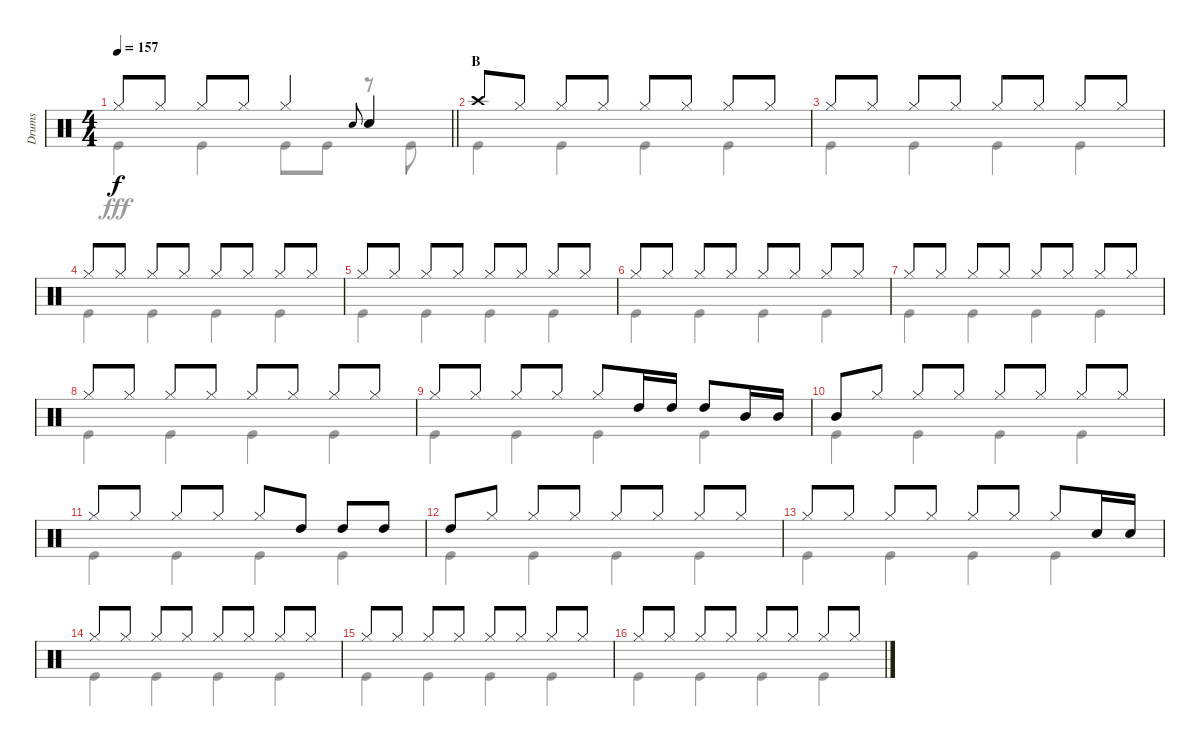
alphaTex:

\track ("Drums" "Drums") {instrument percussion}
\staff {score}
\articulation defaults
\voice
\ts (4 4)
\tempo 157
\clef neutral
\barLineRight lightlight
\ks c "Hi-Hat (closed)".8{dy f} "Hi-Hat (closed)".8 "Hi-Hat (closed)".8 "Hi-Hat (closed)".8 "Hi-Hat (closed)".4 "Snare (hit) 2".8{gr onbeat} "Snare (hit) 2".4
|
\section ("" "B")
"Crash high (hit)".8 "Hi-Hat (closed)".8 "Hi-Hat (closed)".8 "Hi-Hat (closed)".8 "Hi-Hat (closed)".8 "Hi-Hat (closed)".8 "Hi-Hat (closed)".8 "Hi-Hat (closed)".8 |
"Hi-Hat (closed)".8 "Hi-Hat (closed)".8 "Hi-Hat (closed)".8 "Hi-Hat (closed)".8 "Hi-Hat (closed)".8 "Hi-Hat (closed)".8 "Hi-Hat (closed)".8 "Hi-Hat (closed)".8 |
"Hi-Hat (closed)".8 "Hi-Hat (closed)".8 "Hi-Hat (closed)".8 "Hi-Hat (closed)".8 "Hi-Hat (closed)".8 "Hi-Hat (closed)".8 "Hi-Hat (closed)".8 "Hi-Hat (closed)".8 |
"Hi-Hat (closed)".8 "Hi-Hat (closed)".8 "Hi-Hat (closed)".8 "Hi-Hat (closed)".8 "Hi-Hat (closed)".8 "Hi-Hat (closed)".8 "Hi-Hat (closed)".8 "Hi-Hat (closed)".8 |
"Hi-Hat (closed)".8 "Hi-Hat (closed)".8 "Hi-Hat (closed)".8 "Hi-Hat (closed)".8 "Hi-Hat (closed)".8 "Hi-Hat (closed)".8 "Hi-Hat (closed)".8 "Hi-Hat (closed)".8 |
"Hi-Hat (closed)".8 "Hi-Hat (closed)".8 "Hi-Hat (closed)".8 "Hi-Hat (closed)".8 "Hi-Hat (closed)".8 "Hi-Hat (closed)".8 "Hi-Hat (closed)".8 "Hi-Hat (closed)".8 |
"Hi-Hat (closed)".8 "Hi-Hat (closed)".8 "Hi-Hat (closed)".8 "Hi-Hat (closed)".8 "Hi-Hat (closed)".8 "Hi-Hat (closed)".8 "Hi-Hat (closed)".8 "Hi-Hat (closed)".8 |
"Hi-Hat (closed)".8 "Hi-Hat (closed)".8 "Hi-Hat (closed)".8 "Hi-Hat (closed)".8 "Hi-Hat (closed)".8 "High Tom (hit)".16 "High Tom (hit)".16 "High Tom (hit)".8 "Mid Tom (hit)".16 "Mid Tom (hit)".16 |
"Mid Tom (hit)".8 "Hi-Hat (closed)".8 "Hi-Hat (closed)".8 "Hi-Hat (closed)".8 "Hi-Hat (closed)".8 "Hi-Hat (closed)".8 "Hi-Hat (closed)".8 "Hi-Hat (closed)".8 |
"Hi-Hat (closed)".8 "Hi-Hat (closed)".8 "Hi-Hat (closed)".8 "Hi-Hat (closed)".8 "Hi-Hat (closed)".8 "High Tom (hit)".8 "High Tom (hit)".8 "High Tom (hit)".8 |
"High Tom (hit)".8 "Hi-Hat (closed)".8 "Hi-Hat (closed)".8 "Hi-Hat (closed)".8 "Hi-Hat (closed)".8 "Hi-Hat (closed)".8 "Hi-Hat (closed)".8 "Hi-Hat (closed)".8 |
"Hi-Hat (closed)".8 "Hi-Hat (closed)".8 "Hi-Hat (closed)".8 "Hi-Hat (closed)".8 "Hi-Hat (closed)".8 "Hi-Hat (closed)".8 "Hi-Hat (closed)".8 "Snare (hit) 2".16 "Snare (hit) 2".16 |
"Hi-Hat (closed)".8 "Hi-Hat (closed)".8 "Hi-Hat (closed)".8 "Hi-Hat (closed)".8 "Hi-Hat (closed)".8 "Hi-Hat (closed)".8 "Hi-Hat (closed)".8 "Hi-Hat (closed)".8 |
"Hi-Hat (closed)".8 "Hi-Hat (closed)".8 "Hi-Hat (closed)".8 "Hi-Hat (closed)".8 "Hi-Hat (closed)".8 "Hi-Hat (closed)".8 "Hi-Hat (closed)".8 "Hi-Hat (closed)".8 |
"Hi-Hat (closed)".8 "Hi-Hat (closed)".8 "Hi-Hat (closed)".8 "Hi-Hat (closed)".8 "Hi-Hat (closed)".8 "Hi-Hat (closed)".8 "Hi-Hat (closed)".8 "Hi-Hat (closed)".8
\voice
\clef neutral
\ottava regular
\simile none
\barLineRight lightlight
\ks c "Kick (hit)".4{dy fff} "Kick (hit)".4 "Kick (hit)".8 "Kick (hit)".8
r.8 "Kick (hit)".8 |
"Kick (hit)".4 "Kick (hit)".4 "Kick (hit)".4 "Kick (hit)".4 |
"Kick (hit)".4 "Kick (hit)".4 "Kick (hit)".4 "Kick (hit)".4 |
"Kick (hit)".4 "Kick (hit)".4 "Kick (hit)".4 "Kick (hit)".4 |
"Kick (hit)".4 "Kick (hit)".4 "Kick (hit)".4 "Kick (hit)".4 |
"Kick (hit)".4 "Kick (hit)".4 "Kick (hit)".4 "Kick (hit)".4 |
"Kick (hit)".4 "Kick (hit)".4 "Kick (hit)".4 "Kick (hit)".4 |
"Kick (hit)".4 "Kick (hit)".4 "Kick (hit)".4 "Kick (hit)".4 |
"Kick (hit)".4 "Kick (hit)".4 "Kick (hit)".4 "Kick (hit)".4 |
"Kick (hit)".4 "Kick (hit)".4 "Kick (hit)".4 "Kick (hit)".4 |
"Kick (hit)".4 "Kick (hit)".4 "Kick (hit)".4 "Kick (hit)".4 |
"Kick (hit)".4 "Kick (hit)".4 "Kick (hit)".4 "Kick (hit)".4 |
"Kick (hit)".4 "Kick (hit)".4 "Kick (hit)".4 "Kick (hit)".4 |
"Kick (hit)".4 "Kick (hit)".4 "Kick (hit)".4 "Kick (hit)".4 |
"Kick (hit)".4 "Kick (hit)".4 "Kick (hit)".4 "Kick (hit)".4 |
"Kick (hit)".4 "Kick (hit)".4 "Kick (hit)".4 "Kick (hit)".4
